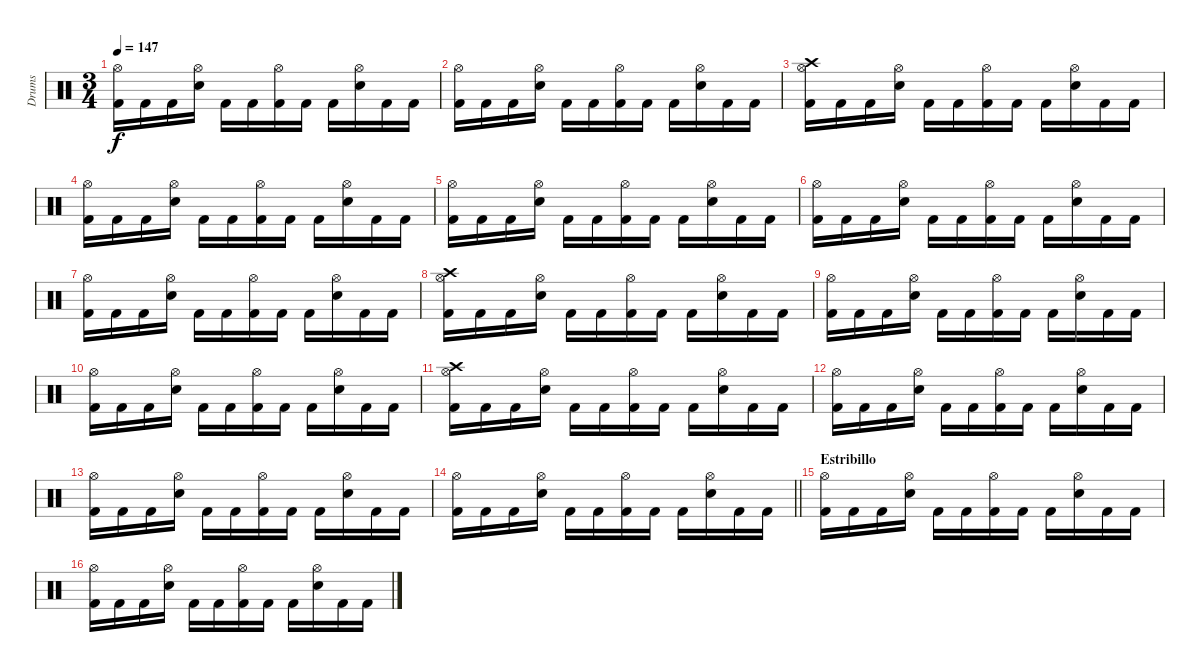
\track ("Drums" "Drums") {instrument percussion}
\staff {score}
\articulation defaults
\ts (3 4)
\tempo 147
\clef neutral
\ks c
("Kick (hit) 2" "Hi-Hat (open)").16{dy f} "Kick (hit) 2".16 "Kick (hit) 2".16 ("Snare (hit) 2" "Hi-Hat (open)").16 "Kick (hit) 2".16 "Kick (hit) 2".16 ("Kick (hit) 2" "Hi-Hat (open)").16 "Kick (hit) 2".16 "Kick (hit) 2".16 ("Snare (hit) 2" "Hi-Hat (open)").16 "Kick (hit) 2".16 "Kick (hit) 2".16 |
("Kick (hit) 2" "Hi-Hat (open)").16 "Kick (hit) 2".16 "Kick (hit) 2".16 ("Snare (hit) 2" "Hi-Hat (open)").16 "Kick (hit) 2".16 "Kick (hit) 2".16 ("Kick (hit) 2" "Hi-Hat (open)").16 "Kick (hit) 2".16 "Kick (hit) 2".16 ("Snare (hit) 2" "Hi-Hat (open)").16 "Kick (hit) 2".16 "Kick (hit) 2".16 |
("Kick (hit) 2" "Crash high (hit)" "Hi-Hat (open)").16 "Kick (hit) 2".16 "Kick (hit) 2".16 ("Snare (hit) 2" "Hi-Hat (open)").16 "Kick (hit) 2".16 "Kick (hit) 2".16 ("Kick (hit) 2" "Hi-Hat (open)").16 "Kick (hit) 2".16 "Kick (hit) 2".16 ("Snare (hit) 2" "Hi-Hat (open)").16 "Kick (hit) 2".16 "Kick (hit) 2".16 |
("Kick (hit) 2" "Hi-Hat (open)").16 "Kick (hit) 2".16 "Kick (hit) 2".16 ("Snare (hit) 2" "Hi-Hat (open)").16 "Kick (hit) 2".16 "Kick (hit) 2".16 ("Kick (hit) 2" "Hi-Hat (open)").16 "Kick (hit) 2".16 "Kick (hit) 2".16 ("Snare (hit) 2" "Hi-Hat (open)").16 "Kick (hit) 2".16 "Kick (hit) 2".16 |
("Kick (hit) 2" "Hi-Hat (open)").16 "Kick (hit) 2".16 "Kick (hit) 2".16 ("Snare (hit) 2" "Hi-Hat (open)").16 "Kick (hit) 2".16 "Kick (hit) 2".16 ("Kick (hit) 2" "Hi-Hat (open)").16 "Kick (hit) 2".16 "Kick (hit) 2".16 ("Snare (hit) 2" "Hi-Hat (open)").16 "Kick (hit) 2".16 "Kick (hit) 2".16 |
("Kick (hit) 2" "Hi-Hat (open)").16 "Kick (hit) 2".16 "Kick (hit) 2".16 ("Snare (hit) 2" "Hi-Hat (open)").16 "Kick (hit) 2".16 "Kick (hit) 2".16 ("Kick (hit) 2" "Hi-Hat (open)").16 "Kick (hit) 2".16 "Kick (hit) 2".16 ("Snare (hit) 2" "Hi-Hat (open)").16 "Kick (hit) 2".16 "Kick (hit) 2".16 |
("Kick (hit) 2" "Hi-Hat (open)").16 "Kick (hit) 2".16 "Kick (hit) 2".16 ("Snare (hit) 2" "Hi-Hat (open)").16 "Kick (hit) 2".16 "Kick (hit) 2".16 ("Kick (hit) 2" "Hi-Hat (open)").16 "Kick (hit) 2".16 "Kick (hit) 2".16 ("Snare (hit) 2" "Hi-Hat (open)").16 "Kick (hit) 2".16 "Kick (hit) 2".16 |
("Kick (hit) 2" "Crash high (hit)" "Hi-Hat (open)").16 "Kick (hit) 2".16 "Kick (hit) 2".16 ("Snare (hit) 2" "Hi-Hat (open)").16 "Kick (hit) 2".16 "Kick (hit) 2".16 ("Kick (hit) 2" "Hi-Hat (open)").16 "Kick (hit) 2".16 "Kick (hit) 2".16 ("Snare (hit) 2" "Hi-Hat (open)").16 "Kick (hit) 2".16 "Kick (hit) 2".16 |
("Kick (hit) 2" "Hi-Hat (open)").16 "Kick (hit) 2".16 "Kick (hit) 2".16 ("Snare (hit) 2" "Hi-Hat (open)").16 "Kick (hit) 2".16 "Kick (hit) 2".16 ("Kick (hit) 2" "Hi-Hat (open)").16 "Kick (hit) 2".16 "Kick (hit) 2".16 ("Snare (hit) 2" "Hi-Hat (open)").16 "Kick (hit) 2".16 "Kick (hit) 2".16 |
("Kick (hit) 2" "Hi-Hat (open)").16 "Kick (hit) 2".16 "Kick (hit) 2".16 ("Snare (hit) 2" "Hi-Hat (open)").16 "Kick (hit) 2".16 "Kick (hit) 2".16 ("Kick (hit) 2" "Hi-Hat (open)").16 "Kick (hit) 2".16 "Kick (hit) 2".16 ("Snare (hit) 2" "Hi-Hat (open)").16 "Kick (hit) 2".16 "Kick (hit) 2".16 |
("Kick (hit) 2" "Crash high (hit)" "Hi-Hat (open)").16 "Kick (hit) 2".16 "Kick (hit) 2".16 ("Snare (hit) 2" "Hi-Hat (open)").16 "Kick (hit) 2".16 "Kick (hit) 2".16 ("Kick (hit) 2" "Hi-Hat (open)").16 "Kick (hit) 2".16 "Kick (hit) 2".16 ("Snare (hit) 2" "Hi-Hat (open)").16 "Kick (hit) 2".16 "Kick (hit) 2".16 |
("Kick (hit) 2" "Hi-Hat (open)").16 "Kick (hit) 2".16 "Kick (hit) 2".16 ("Snare (hit) 2" "Hi-Hat (open)").16 "Kick (hit) 2".16 "Kick (hit) 2".16 ("Kick (hit) 2" "Hi-Hat (open)").16 "Kick (hit) 2".16 "Kick (hit) 2".16 ("Snare (hit) 2" "Hi-Hat (open)").16 "Kick (hit) 2".16 "Kick (hit) 2".16 |
("Kick (hit) 2" "Hi-Hat (open)").16 "Kick (hit) 2".16 "Kick (hit) 2".16 ("Snare (hit) 2" "Hi-Hat (open)").16 "Kick (hit) 2".16 "Kick (hit) 2".16 ("Kick (hit) 2" "Hi-Hat (open)").16 "Kick (hit) 2".16 "Kick (hit) 2".16 ("Snare (hit) 2" "Hi-Hat (open)").16 "Kick (hit) 2".16 "Kick (hit) 2".16 |
\barLineRight lightlight
("Kick (hit) 2" "Hi-Hat (open)").16 "Kick (hit) 2".16 "Kick (hit) 2".16 ("Snare (hit) 2" "Hi-Hat (open)").16 "Kick (hit) 2".16 "Kick (hit) 2".16 ("Kick (hit) 2" "Hi-Hat (open)").16 "Kick (hit) 2".16 "Kick (hit) 2".16 ("Snare (hit) 2" "Hi-Hat (open)").16 "Kick (hit) 2".16 "Kick (hit) 2".16 |
\section ("" "Estribillo")
("Kick (hit) 2" "Hi-Hat (open)").16 "Kick (hit) 2".16 "Kick (hit) 2".16 ("Snare (hit) 2" "Hi-Hat (open)").16 "Kick (hit) 2".16 "Kick (hit) 2".16 ("Kick (hit) 2" "Hi-Hat (open)").16 "Kick (hit) 2".16 "Kick (hit) 2".16 ("Snare (hit) 2" "Hi-Hat (open)").16 "Kick (hit) 2".16 "Kick (hit) 2".16 |
("Kick (hit) 2" "Hi-Hat (open)").16 "Kick (hit) 2".16 "Kick (hit) 2".16 ("Snare (hit) 2" "Hi-Hat (open)").16 "Kick (hit) 2".16 "Kick (hit) 2".16 ("Kick (hit) 2" "Hi-Hat (open)").16 "Kick (hit) 2".16 "Kick (hit) 2".16 ("Snare (hit) 2" "Hi-Hat (open)").16 "Kick (hit) 2".16 "Kick (hit) 2".16
